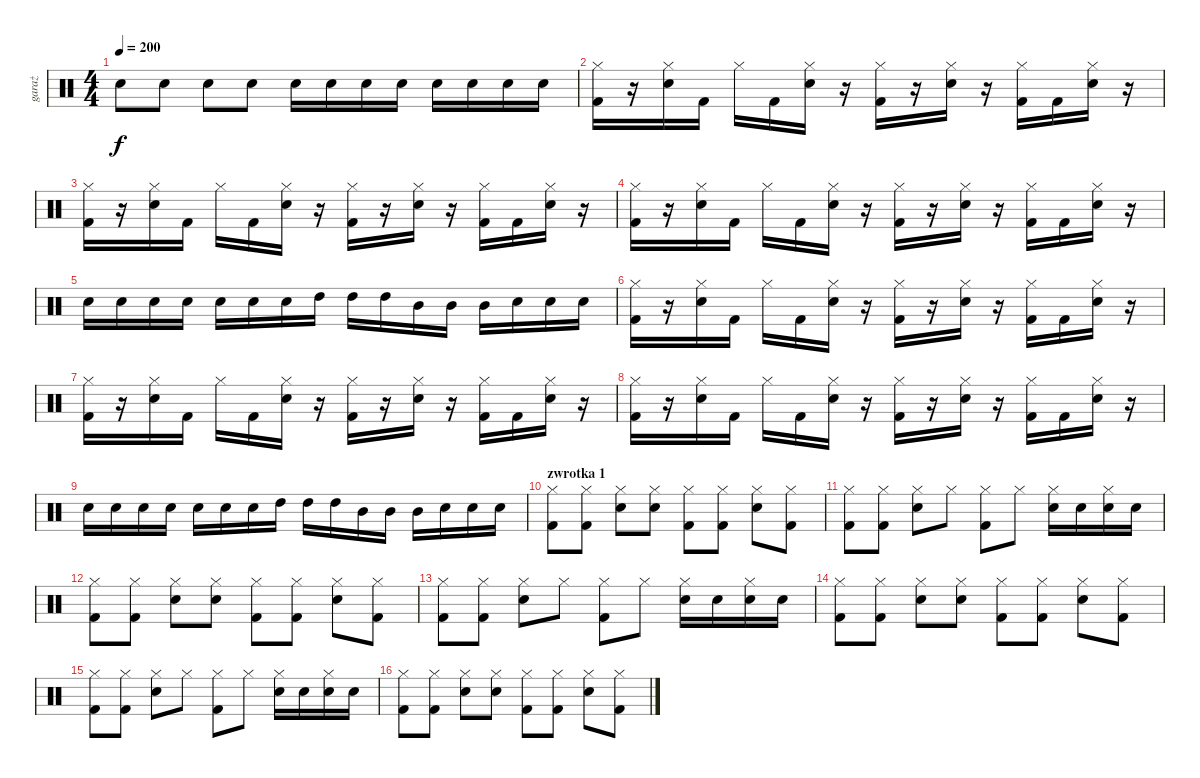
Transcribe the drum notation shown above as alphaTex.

\track ("garaż" "garaż") {instrument percussion}
\staff {score}
\articulation defaults
\ts (4 4)
\tempo 200
\clef neutral
\ks c "Snare (hit) 2".8{dy f} "Snare (hit) 2".8 "Snare (hit) 2".8 "Snare (hit) 2".8 "Snare (hit) 2".16 "Snare (hit) 2".16 "Snare (hit) 2".16 "Snare (hit) 2".16 "Snare (hit) 2".16 "Snare (hit) 2".16 "Snare (hit) 2".16 "Snare (hit) 2".16
|
("Hi-Hat (closed)" "Kick (hit) 2").16 r.16 ("Hi-Hat (closed)" "Snare (hit) 2").16 "Kick (hit) 2".16 "Hi-Hat (closed)".16 "Kick (hit) 2".16 ("Hi-Hat (closed)" "Snare (hit) 2").16 r.16 ("Hi-Hat (closed)" "Kick (hit) 2").16 r.16 ("Hi-Hat (closed)" "Snare (hit) 2").16 r.16 ("Hi-Hat (closed)" "Kick (hit) 2").16 "Kick (hit) 2".16 ("Hi-Hat (closed)" "Snare (hit) 2").16 r.16 |
("Hi-Hat (closed)" "Kick (hit) 2").16 r.16 ("Hi-Hat (closed)" "Snare (hit) 2").16 "Kick (hit) 2".16 "Hi-Hat (closed)".16 "Kick (hit) 2".16 ("Hi-Hat (closed)" "Snare (hit) 2").16 r.16 ("Hi-Hat (closed)" "Kick (hit) 2").16 r.16 ("Hi-Hat (closed)" "Snare (hit) 2").16 r.16 ("Hi-Hat (closed)" "Kick (hit) 2").16 "Kick (hit) 2".16 ("Hi-Hat (closed)" "Snare (hit) 2").16 r.16 |
("Hi-Hat (closed)" "Kick (hit) 2").16 r.16 ("Hi-Hat (closed)" "Snare (hit) 2").16 "Kick (hit) 2".16 "Hi-Hat (closed)".16 "Kick (hit) 2".16 ("Hi-Hat (closed)" "Snare (hit) 2").16 r.16 ("Hi-Hat (closed)" "Kick (hit) 2").16 r.16 ("Hi-Hat (closed)" "Snare (hit) 2").16 r.16 ("Hi-Hat (closed)" "Kick (hit) 2").16 "Kick (hit) 2".16 ("Hi-Hat (closed)" "Snare (hit) 2").16 r.16 |
"Snare (hit) 2".16 "Snare (hit) 2".16 "Snare (hit) 2".16 "Snare (hit) 2".16 "Snare (hit) 2".16 "Snare (hit) 2".16 "Snare (hit) 2".16 "High Tom (hit)".16 "High Tom (hit)".16 "High Tom (hit)".16 "Mid Tom (hit)".16 "Mid Tom (hit)".16 "Mid Tom (hit)".16 "Snare (hit) 2".16 "Snare (hit) 2".16 "Snare (hit) 2".16 |
("Hi-Hat (closed)" "Kick (hit) 2").16 r.16 ("Hi-Hat (closed)" "Snare (hit) 2").16 "Kick (hit) 2".16 "Hi-Hat (closed)".16 "Kick (hit) 2".16 ("Hi-Hat (closed)" "Snare (hit) 2").16 r.16 ("Hi-Hat (closed)" "Kick (hit) 2").16 r.16 ("Hi-Hat (closed)" "Snare (hit) 2").16 r.16 ("Hi-Hat (closed)" "Kick (hit) 2").16 "Kick (hit) 2".16 ("Hi-Hat (closed)" "Snare (hit) 2").16 r.16 |
("Hi-Hat (closed)" "Kick (hit) 2").16 r.16 ("Hi-Hat (closed)" "Snare (hit) 2").16 "Kick (hit) 2".16 "Hi-Hat (closed)".16 "Kick (hit) 2".16 ("Hi-Hat (closed)" "Snare (hit) 2").16 r.16 ("Hi-Hat (closed)" "Kick (hit) 2").16 r.16 ("Hi-Hat (closed)" "Snare (hit) 2").16 r.16 ("Hi-Hat (closed)" "Kick (hit) 2").16 "Kick (hit) 2".16 ("Hi-Hat (closed)" "Snare (hit) 2").16 r.16 |
("Hi-Hat (closed)" "Kick (hit) 2").16 r.16 ("Hi-Hat (closed)" "Snare (hit) 2").16 "Kick (hit) 2".16 "Hi-Hat (closed)".16 "Kick (hit) 2".16 ("Hi-Hat (closed)" "Snare (hit) 2").16 r.16 ("Hi-Hat (closed)" "Kick (hit) 2").16 r.16 ("Hi-Hat (closed)" "Snare (hit) 2").16 r.16 ("Hi-Hat (closed)" "Kick (hit) 2").16 "Kick (hit) 2".16 ("Hi-Hat (closed)" "Snare (hit) 2").16 r.16 |
"Snare (hit) 2".16 "Snare (hit) 2".16 "Snare (hit) 2".16 "Snare (hit) 2".16 "Snare (hit) 2".16 "Snare (hit) 2".16 "Snare (hit) 2".16 "High Tom (hit)".16 "High Tom (hit)".16 "High Tom (hit)".16 "Mid Tom (hit)".16 "Mid Tom (hit)".16 "Mid Tom (hit)".16 "Snare (hit) 2".16 "Snare (hit) 2".16 "Snare (hit) 2".16 |
\section ("" "zwrotka 1")
("Hi-Hat (closed)" "Kick (hit) 2").8 ("Hi-Hat (closed)" "Kick (hit) 2").8 ("Hi-Hat (closed)" "Snare (hit) 2").8 ("Hi-Hat (closed)" "Snare (hit) 2").8 ("Hi-Hat (closed)" "Kick (hit) 2").8 ("Hi-Hat (closed)" "Kick (hit) 2").8 ("Hi-Hat (closed)" "Snare (hit) 2").8 ("Hi-Hat (closed)" "Kick (hit) 2").8 |
("Hi-Hat (closed)" "Kick (hit) 2").8 ("Hi-Hat (closed)" "Kick (hit) 2").8 ("Hi-Hat (closed)" "Snare (hit) 2").8 "Hi-Hat (closed)".8 ("Hi-Hat (closed)" "Kick (hit) 2").8 "Hi-Hat (closed)".8 ("Hi-Hat (closed)" "Snare (hit) 2").16 "Snare (hit) 2".16 ("Hi-Hat (closed)" "Snare (hit) 2").16 "Snare (hit) 2".16 |
("Hi-Hat (closed)" "Kick (hit) 2").8 ("Hi-Hat (closed)" "Kick (hit) 2").8 ("Hi-Hat (closed)" "Snare (hit) 2").8 ("Hi-Hat (closed)" "Snare (hit) 2").8 ("Hi-Hat (closed)" "Kick (hit) 2").8 ("Hi-Hat (closed)" "Kick (hit) 2").8 ("Hi-Hat (closed)" "Snare (hit) 2").8 ("Hi-Hat (closed)" "Kick (hit) 2").8 |
("Hi-Hat (closed)" "Kick (hit) 2").8 ("Hi-Hat (closed)" "Kick (hit) 2").8 ("Hi-Hat (closed)" "Snare (hit) 2").8 "Hi-Hat (closed)".8 ("Hi-Hat (closed)" "Kick (hit) 2").8 "Hi-Hat (closed)".8 ("Hi-Hat (closed)" "Snare (hit) 2").16 "Snare (hit) 2".16 ("Hi-Hat (closed)" "Snare (hit) 2").16 "Snare (hit) 2".16 |
("Hi-Hat (closed)" "Kick (hit) 2").8 ("Hi-Hat (closed)" "Kick (hit) 2").8 ("Hi-Hat (closed)" "Snare (hit) 2").8 ("Hi-Hat (closed)" "Snare (hit) 2").8 ("Hi-Hat (closed)" "Kick (hit) 2").8 ("Hi-Hat (closed)" "Kick (hit) 2").8 ("Hi-Hat (closed)" "Snare (hit) 2").8 ("Hi-Hat (closed)" "Kick (hit) 2").8 |
("Hi-Hat (closed)" "Kick (hit) 2").8 ("Hi-Hat (closed)" "Kick (hit) 2").8 ("Hi-Hat (closed)" "Snare (hit) 2").8 "Hi-Hat (closed)".8 ("Hi-Hat (closed)" "Kick (hit) 2").8 "Hi-Hat (closed)".8 ("Hi-Hat (closed)" "Snare (hit) 2").16 "Snare (hit) 2".16 ("Hi-Hat (closed)" "Snare (hit) 2").16 "Snare (hit) 2".16 |
("Hi-Hat (closed)" "Kick (hit) 2").8 ("Hi-Hat (closed)" "Kick (hit) 2").8 ("Hi-Hat (closed)" "Snare (hit) 2").8 ("Hi-Hat (closed)" "Snare (hit) 2").8 ("Hi-Hat (closed)" "Kick (hit) 2").8 ("Hi-Hat (closed)" "Kick (hit) 2").8 ("Hi-Hat (closed)" "Snare (hit) 2").8 ("Hi-Hat (closed)" "Kick (hit) 2").8
